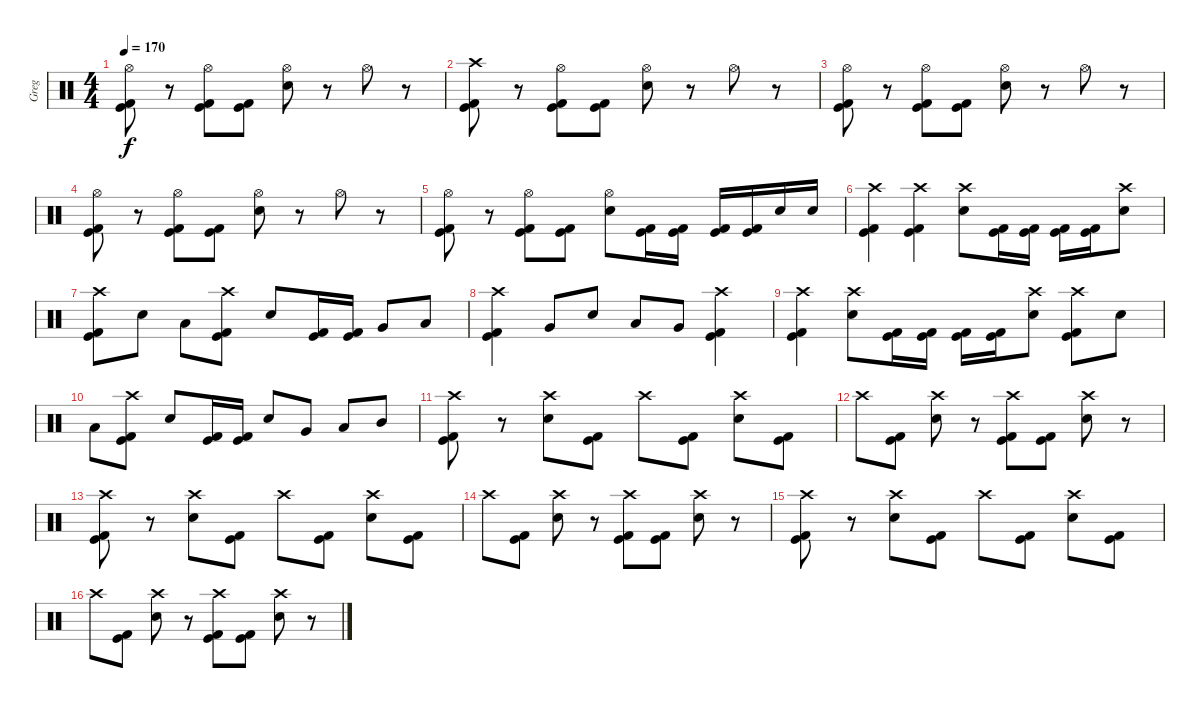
\track ("Greg" "Greg") {instrument percussion}
\staff {score}
\articulation defaults
\ts (4 4)
\tempo 170
\clef neutral
\ks c
("Hi-Hat (open)" "Kick (hit)" "Kick (hit) 2").8{dy f} r.8 ("Hi-Hat (open)" "Kick (hit)" "Kick (hit) 2").8 ("Kick (hit)" "Kick (hit) 2").8 ("Hi-Hat (open)" "Snare (hit) 2").8 r.8 "Hi-Hat (open)".8 r.8 |
("Crash high (hit)" "Kick (hit)" "Kick (hit) 2").8 r.8 ("Hi-Hat (open)" "Kick (hit)" "Kick (hit) 2").8 ("Kick (hit)" "Kick (hit) 2").8 ("Hi-Hat (open)" "Snare (hit) 2").8 r.8 "Hi-Hat (open)".8 r.8 |
("Hi-Hat (open)" "Kick (hit)" "Kick (hit) 2").8 r.8 ("Hi-Hat (open)" "Kick (hit)" "Kick (hit) 2").8 ("Kick (hit)" "Kick (hit) 2").8 ("Hi-Hat (open)" "Snare (hit) 2").8 r.8 "Hi-Hat (open)".8 r.8 |
("Hi-Hat (open)" "Kick (hit)" "Kick (hit) 2").8 r.8 ("Hi-Hat (open)" "Kick (hit)" "Kick (hit) 2").8 ("Kick (hit)" "Kick (hit) 2").8 ("Hi-Hat (open)" "Snare (hit) 2").8 r.8 "Hi-Hat (open)".8 r.8 |
("Hi-Hat (open)" "Kick (hit)" "Kick (hit) 2").8 r.8 ("Hi-Hat (open)" "Kick (hit)" "Kick (hit) 2").8 ("Kick (hit)" "Kick (hit) 2").8 ("Hi-Hat (open)" "Snare (hit) 2").8 ("Kick (hit)" "Kick (hit) 2").16 ("Kick (hit)" "Kick (hit) 2").16 ("Kick (hit)" "Kick (hit) 2").16 ("Kick (hit)" "Kick (hit) 2").16 "Snare (hit) 2".16 "Snare (hit) 2".16 |
("Crash high (hit)" "Kick (hit)" "Kick (hit) 2").4 ("Crash high (hit)" "Kick (hit)" "Kick (hit) 2").4 ("Crash high (hit)" "Snare (hit) 2").8 ("Kick (hit)" "Kick (hit) 2").16 ("Kick (hit)" "Kick (hit) 2").16 ("Kick (hit)" "Kick (hit) 2").16 ("Kick (hit)" "Kick (hit) 2").16 ("Crash high (hit)" "Snare (hit) 2").8 |
("Crash high (hit)" "Kick (hit)" "Kick (hit) 2").8 "Snare (hit) 2".8 "Low Tom (hit)".8 ("Crash high (hit)" "Kick (hit)" "Kick (hit) 2").8 "Snare (hit) 2".8 ("Kick (hit)" "Kick (hit) 2").16 ("Kick (hit)" "Kick (hit) 2").16 "Very Low Tom (hit)".8 "Low Tom (hit)".8 |
("Crash high (hit)" "Kick (hit)" "Kick (hit) 2").4 "Very Low Tom (hit)".8 "Snare (hit) 2".8 "Low Tom (hit)".8 "Very Low Tom (hit)".8 ("Crash high (hit)" "Kick (hit)" "Kick (hit) 2").4 |
("Crash high (hit)" "Kick (hit)" "Kick (hit) 2").4 ("Crash high (hit)" "Snare (hit) 2").8 ("Kick (hit)" "Kick (hit) 2").16 ("Kick (hit)" "Kick (hit) 2").16 ("Kick (hit)" "Kick (hit) 2").16 ("Kick (hit)" "Kick (hit) 2").16 ("Crash high (hit)" "Snare (hit) 2").8 ("Crash high (hit)" "Kick (hit)" "Kick (hit) 2").8 "Snare (hit) 2".8 |
"Low Tom (hit)".8 ("Crash high (hit)" "Kick (hit)" "Kick (hit) 2").8 "Snare (hit) 2".8 ("Kick (hit)" "Kick (hit) 2").16 ("Kick (hit)" "Kick (hit) 2").16 "Snare (hit) 2".8 "Very Low Tom (hit)".8 "Low Tom (hit)".8 "Mid Tom (hit)".8 |
("Crash high (hit)" "Kick (hit)" "Kick (hit) 2").8 r.8 ("Crash high (hit)" "Snare (hit) 2").8 ("Kick (hit)" "Kick (hit) 2").8 "Crash high (hit)".8 ("Kick (hit)" "Kick (hit) 2").8 ("Crash high (hit)" "Snare (hit) 2").8 ("Kick (hit)" "Kick (hit) 2").8 |
"Crash high (hit)".8 ("Kick (hit)" "Kick (hit) 2").8 ("Crash high (hit)" "Snare (hit) 2").8 r.8 ("Crash high (hit)" "Kick (hit)" "Kick (hit) 2").8 ("Kick (hit)" "Kick (hit) 2").8 ("Crash high (hit)" "Snare (hit) 2").8 r.8 |
("Crash high (hit)" "Kick (hit)" "Kick (hit) 2").8 r.8 ("Crash high (hit)" "Snare (hit) 2").8 ("Kick (hit)" "Kick (hit) 2").8 "Crash high (hit)".8 ("Kick (hit)" "Kick (hit) 2").8 ("Crash high (hit)" "Snare (hit) 2").8 ("Kick (hit)" "Kick (hit) 2").8 |
"Crash high (hit)".8 ("Kick (hit)" "Kick (hit) 2").8 ("Crash high (hit)" "Snare (hit) 2").8 r.8 ("Crash high (hit)" "Kick (hit)" "Kick (hit) 2").8 ("Kick (hit)" "Kick (hit) 2").8 ("Crash high (hit)" "Snare (hit) 2").8 r.8 |
("Crash high (hit)" "Kick (hit)" "Kick (hit) 2").8 r.8 ("Crash high (hit)" "Snare (hit) 2").8 ("Kick (hit)" "Kick (hit) 2").8 "Crash high (hit)".8 ("Kick (hit)" "Kick (hit) 2").8 ("Crash high (hit)" "Snare (hit) 2").8 ("Kick (hit)" "Kick (hit) 2").8 |
"Crash high (hit)".8 ("Kick (hit)" "Kick (hit) 2").8 ("Crash high (hit)" "Snare (hit) 2").8 r.8 ("Crash high (hit)" "Kick (hit)" "Kick (hit) 2").8 ("Kick (hit)" "Kick (hit) 2").8 ("Crash high (hit)" "Snare (hit) 2").8 r.8
